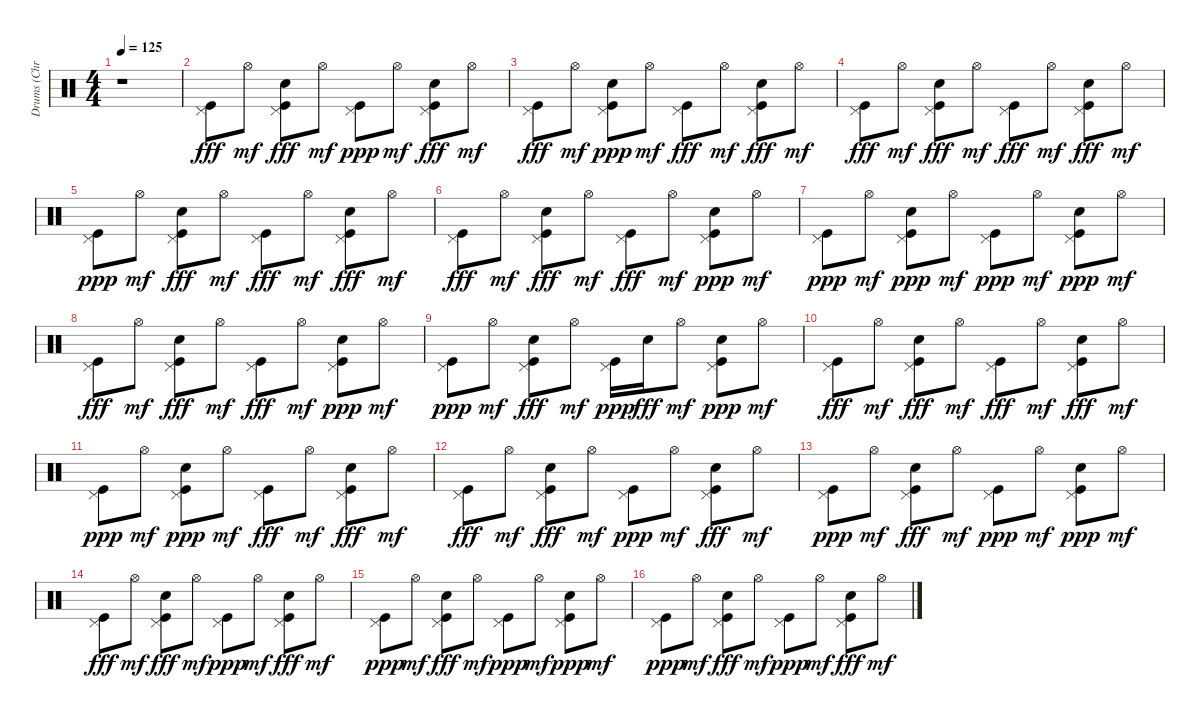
\track ("Drums (Christoph)" "Drums (Chr") {instrument percussion}
\staff {score}
\articulation defaults
\ts (4 4)
\tempo 125
\clef neutral
\ks c
r.1{dy mf} |
("Pedal Hi-Hat (hit)" "Kick (hit)").8{dy fff} "Hi-Hat (open)".8{dy mf} ("Kick (hit)" "Pedal Hi-Hat (hit)" "Electric Snare (hit)").8{dy fff} "Hi-Hat (open)".8{dy mf} ("Kick (hit)" "Pedal Hi-Hat (hit)").8{dy ppp} "Hi-Hat (open)".8{dy mf} ("Electric Snare (hit)" "Pedal Hi-Hat (hit)" "Kick (hit)").8{dy fff} "Hi-Hat (open)".8{dy mf} |
("Pedal Hi-Hat (hit)" "Kick (hit)").8{dy fff} "Hi-Hat (open)".8{dy mf} ("Electric Snare (hit)" "Kick (hit)" "Pedal Hi-Hat (hit)").8{dy ppp} "Hi-Hat (open)".8{dy mf} ("Pedal Hi-Hat (hit)" "Kick (hit)").8{dy fff} "Hi-Hat (open)".8{dy mf} ("Kick (hit)" "Pedal Hi-Hat (hit)" "Electric Snare (hit)").8{dy fff} "Hi-Hat (open)".8{dy mf} |
("Pedal Hi-Hat (hit)" "Kick (hit)").8{dy fff} "Hi-Hat (open)".8{dy mf} ("Electric Snare (hit)" "Pedal Hi-Hat (hit)" "Kick (hit)").8{dy fff} "Hi-Hat (open)".8{dy mf} ("Pedal Hi-Hat (hit)" "Kick (hit)").8{dy fff} "Hi-Hat (open)".8{dy mf} ("Kick (hit)" "Pedal Hi-Hat (hit)" "Electric Snare (hit)").8{dy fff} "Hi-Hat (open)".8{dy mf} |
("Kick (hit)" "Pedal Hi-Hat (hit)").8{dy ppp} "Hi-Hat (open)".8{dy mf} ("Electric Snare (hit)" "Pedal Hi-Hat (hit)" "Kick (hit)").8{dy fff} "Hi-Hat (open)".8{dy mf} ("Pedal Hi-Hat (hit)" "Kick (hit)").8{dy fff} "Hi-Hat (open)".8{dy mf} ("Pedal Hi-Hat (hit)" "Kick (hit)" "Electric Snare (hit)").8{dy fff} "Hi-Hat (open)".8{dy mf} |
("Pedal Hi-Hat (hit)" "Kick (hit)").8{dy fff} "Hi-Hat (open)".8{dy mf} ("Pedal Hi-Hat (hit)" "Kick (hit)" "Electric Snare (hit)").8{dy fff} "Hi-Hat (open)".8{dy mf} ("Pedal Hi-Hat (hit)" "Kick (hit)").8{dy fff} "Hi-Hat (open)".8{dy mf} ("Electric Snare (hit)" "Kick (hit)" "Pedal Hi-Hat (hit)").8{dy ppp} "Hi-Hat (open)".8{dy mf} |
("Kick (hit)" "Pedal Hi-Hat (hit)").8{dy ppp} "Hi-Hat (open)".8{dy mf} ("Kick (hit)" "Electric Snare (hit)" "Pedal Hi-Hat (hit)").8{dy ppp} "Hi-Hat (open)".8{dy mf} ("Kick (hit)" "Pedal Hi-Hat (hit)").8{dy ppp} "Hi-Hat (open)".8{dy mf} ("Electric Snare (hit)" "Kick (hit)" "Pedal Hi-Hat (hit)").8{dy ppp} "Hi-Hat (open)".8{dy mf} |
("Pedal Hi-Hat (hit)" "Kick (hit)").8{dy fff} "Hi-Hat (open)".8{dy mf} ("Electric Snare (hit)" "Pedal Hi-Hat (hit)" "Kick (hit)").8{dy fff} "Hi-Hat (open)".8{dy mf} ("Pedal Hi-Hat (hit)" "Kick (hit)").8{dy fff} "Hi-Hat (open)".8{dy mf} ("Electric Snare (hit)" "Kick (hit)" "Pedal Hi-Hat (hit)").8{dy ppp} "Hi-Hat (open)".8{dy mf} |
("Kick (hit)" "Pedal Hi-Hat (hit)").8{dy ppp} "Hi-Hat (open)".8{dy mf} ("Pedal Hi-Hat (hit)" "Kick (hit)" "Electric Snare (hit)").8{dy fff} "Hi-Hat (open)".8{dy mf} ("Kick (hit)" "Pedal Hi-Hat (hit)").16{dy ppp} "Electric Snare (hit)".16{dy fff} "Hi-Hat (open)".8{dy mf} ("Electric Snare (hit)" "Kick (hit)" "Pedal Hi-Hat (hit)").8{dy ppp} "Hi-Hat (open)".8{dy mf} |
("Pedal Hi-Hat (hit)" "Kick (hit)").8{dy fff} "Hi-Hat (open)".8{dy mf} ("Pedal Hi-Hat (hit)" "Electric Snare (hit)" "Kick (hit)").8{dy fff} "Hi-Hat (open)".8{dy mf} ("Pedal Hi-Hat (hit)" "Kick (hit)").8{dy fff} "Hi-Hat (open)".8{dy mf} ("Pedal Hi-Hat (hit)" "Electric Snare (hit)" "Kick (hit)").8{dy fff} "Hi-Hat (open)".8{dy mf} |
("Kick (hit)" "Pedal Hi-Hat (hit)").8{dy ppp} "Hi-Hat (open)".8{dy mf} ("Electric Snare (hit)" "Kick (hit)" "Pedal Hi-Hat (hit)").8{dy ppp} "Hi-Hat (open)".8{dy mf} ("Pedal Hi-Hat (hit)" "Kick (hit)").8{dy fff} "Hi-Hat (open)".8{dy mf} ("Electric Snare (hit)" "Pedal Hi-Hat (hit)" "Kick (hit)").8{dy fff} "Hi-Hat (open)".8{dy mf} |
("Pedal Hi-Hat (hit)" "Kick (hit)").8{dy fff} "Hi-Hat (open)".8{dy mf} ("Electric Snare (hit)" "Pedal Hi-Hat (hit)" "Kick (hit)").8{dy fff} "Hi-Hat (open)".8{dy mf} ("Kick (hit)" "Pedal Hi-Hat (hit)").8{dy ppp} "Hi-Hat (open)".8{dy mf} ("Pedal Hi-Hat (hit)" "Kick (hit)" "Electric Snare (hit)").8{dy fff} "Hi-Hat (open)".8{dy mf} |
("Kick (hit)" "Pedal Hi-Hat (hit)").8{dy ppp} "Hi-Hat (open)".8{dy mf} ("Pedal Hi-Hat (hit)" "Electric Snare (hit)" "Kick (hit)").8{dy fff} "Hi-Hat (open)".8{dy mf} ("Kick (hit)" "Pedal Hi-Hat (hit)").8{dy ppp} "Hi-Hat (open)".8{dy mf} ("Electric Snare (hit)" "Kick (hit)" "Pedal Hi-Hat (hit)").8{dy ppp} "Hi-Hat (open)".8{dy mf} |
("Pedal Hi-Hat (hit)" "Kick (hit)").8{dy fff} "Hi-Hat (open)".8{dy mf} ("Electric Snare (hit)" "Pedal Hi-Hat (hit)" "Kick (hit)").8{dy fff} "Hi-Hat (open)".8{dy mf} ("Kick (hit)" "Pedal Hi-Hat (hit)").8{dy ppp} "Hi-Hat (open)".8{dy mf} ("Kick (hit)" "Pedal Hi-Hat (hit)" "Electric Snare (hit)").8{dy fff} "Hi-Hat (open)".8{dy mf} |
("Kick (hit)" "Pedal Hi-Hat (hit)").8{dy ppp} "Hi-Hat (open)".8{dy mf} ("Pedal Hi-Hat (hit)" "Kick (hit)" "Electric Snare (hit)").8{dy fff} "Hi-Hat (open)".8{dy mf} ("Kick (hit)" "Pedal Hi-Hat (hit)").8{dy ppp} "Hi-Hat (open)".8{dy mf} ("Kick (hit)" "Electric Snare (hit)" "Pedal Hi-Hat (hit)").8{dy ppp} "Hi-Hat (open)".8{dy mf} |
("Kick (hit)" "Pedal Hi-Hat (hit)").8{dy ppp} "Hi-Hat (open)".8{dy mf} ("Electric Snare (hit)" "Pedal Hi-Hat (hit)" "Kick (hit)").8{dy fff} "Hi-Hat (open)".8{dy mf} ("Kick (hit)" "Pedal Hi-Hat (hit)").8{dy ppp} "Hi-Hat (open)".8{dy mf} ("Electric Snare (hit)" "Pedal Hi-Hat (hit)" "Kick (hit)").8{dy fff} "Hi-Hat (open)".8{dy mf}
